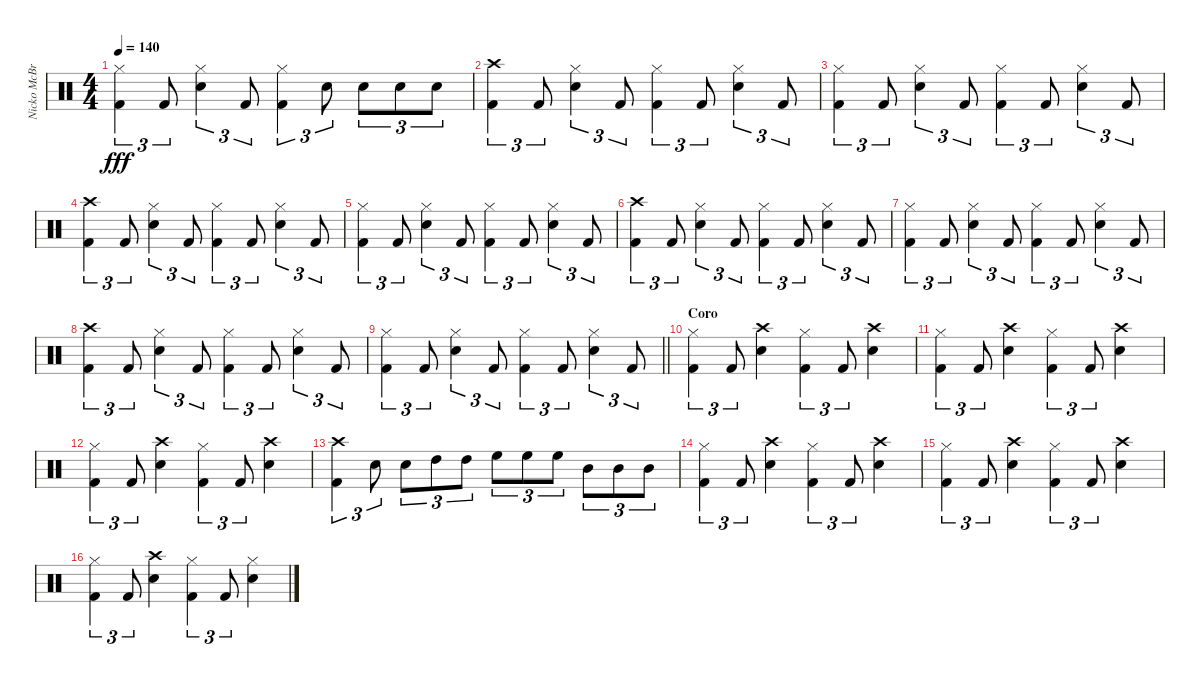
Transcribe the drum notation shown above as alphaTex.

\track ("Nicko McBrain" "Nicko McBr") {instrument percussion}
\staff {score}
\articulation defaults
\ts (4 4)
\tempo 140
\clef neutral
\ks c
("Kick (hit) 2" "Hi-Hat (closed)").4{tu (3 2) dy fff} "Kick (hit) 2".8{tu (3 2)} ("Hi-Hat (closed)" "Snare (hit) 2").4{tu (3 2)} "Kick (hit) 2".8{tu (3 2)} ("Kick (hit) 2" "Hi-Hat (closed)").4{tu (3 2)} "Snare (hit) 2".8{tu (3 2)} "Snare (hit) 2".8{tu (3 2)} "Snare (hit) 2".8{tu (3 2)} "Snare (hit) 2".8{tu (3 2)} |
("Crash high (hit)" "Kick (hit) 2").4{tu (3 2)} "Kick (hit) 2".8{tu (3 2)} ("Hi-Hat (closed)" "Snare (hit) 2").4{tu (3 2)} "Kick (hit) 2".8{tu (3 2)} ("Kick (hit) 2" "Hi-Hat (closed)").4{tu (3 2)} "Kick (hit) 2".8{tu (3 2)} ("Hi-Hat (closed)" "Snare (hit) 2").4{tu (3 2)} "Kick (hit) 2".8{tu (3 2)} |
("Kick (hit) 2" "Hi-Hat (closed)").4{tu (3 2)} "Kick (hit) 2".8{tu (3 2)} ("Hi-Hat (closed)" "Snare (hit) 2").4{tu (3 2)} "Kick (hit) 2".8{tu (3 2)} ("Kick (hit) 2" "Hi-Hat (closed)").4{tu (3 2)} "Kick (hit) 2".8{tu (3 2)} ("Hi-Hat (closed)" "Snare (hit) 2").4{tu (3 2)} "Kick (hit) 2".8{tu (3 2)} |
("Crash high (hit)" "Kick (hit) 2").4{tu (3 2)} "Kick (hit) 2".8{tu (3 2)} ("Hi-Hat (closed)" "Snare (hit) 2").4{tu (3 2)} "Kick (hit) 2".8{tu (3 2)} ("Kick (hit) 2" "Hi-Hat (closed)").4{tu (3 2)} "Kick (hit) 2".8{tu (3 2)} ("Hi-Hat (closed)" "Snare (hit) 2").4{tu (3 2)} "Kick (hit) 2".8{tu (3 2)} |
("Kick (hit) 2" "Hi-Hat (closed)").4{tu (3 2)} "Kick (hit) 2".8{tu (3 2)} ("Hi-Hat (closed)" "Snare (hit) 2").4{tu (3 2)} "Kick (hit) 2".8{tu (3 2)} ("Kick (hit) 2" "Hi-Hat (closed)").4{tu (3 2)} "Kick (hit) 2".8{tu (3 2)} ("Hi-Hat (closed)" "Snare (hit) 2").4{tu (3 2)} "Kick (hit) 2".8{tu (3 2)} |
("Crash high (hit)" "Kick (hit) 2").4{tu (3 2)} "Kick (hit) 2".8{tu (3 2)} ("Hi-Hat (closed)" "Snare (hit) 2").4{tu (3 2)} "Kick (hit) 2".8{tu (3 2)} ("Kick (hit) 2" "Hi-Hat (closed)").4{tu (3 2)} "Kick (hit) 2".8{tu (3 2)} ("Hi-Hat (closed)" "Snare (hit) 2").4{tu (3 2)} "Kick (hit) 2".8{tu (3 2)} |
("Kick (hit) 2" "Hi-Hat (closed)").4{tu (3 2)} "Kick (hit) 2".8{tu (3 2)} ("Hi-Hat (closed)" "Snare (hit) 2").4{tu (3 2)} "Kick (hit) 2".8{tu (3 2)} ("Kick (hit) 2" "Hi-Hat (closed)").4{tu (3 2)} "Kick (hit) 2".8{tu (3 2)} ("Hi-Hat (closed)" "Snare (hit) 2").4{tu (3 2)} "Kick (hit) 2".8{tu (3 2)} |
("Crash high (hit)" "Kick (hit) 2").4{tu (3 2)} "Kick (hit) 2".8{tu (3 2)} ("Hi-Hat (closed)" "Snare (hit) 2").4{tu (3 2)} "Kick (hit) 2".8{tu (3 2)} ("Kick (hit) 2" "Hi-Hat (closed)").4{tu (3 2)} "Kick (hit) 2".8{tu (3 2)} ("Hi-Hat (closed)" "Snare (hit) 2").4{tu (3 2)} "Kick (hit) 2".8{tu (3 2)} |
\barLineRight lightlight
("Kick (hit) 2" "Hi-Hat (closed)").4{tu (3 2)} "Kick (hit) 2".8{tu (3 2)} ("Hi-Hat (closed)" "Snare (hit) 2").4{tu (3 2)} "Kick (hit) 2".8{tu (3 2)} ("Kick (hit) 2" "Hi-Hat (closed)").4{tu (3 2)} "Kick (hit) 2".8{tu (3 2)} ("Hi-Hat (closed)" "Snare (hit) 2").4{tu (3 2)} "Kick (hit) 2".8{tu (3 2)} |
\section ("" "Coro")
("Hi-Hat (closed)" "Kick (hit) 2").4{tu (3 2)} "Kick (hit) 2".8{tu (3 2)} ("Crash high (hit)" "Snare (hit) 2").4 ("Hi-Hat (closed)" "Kick (hit) 2").4{tu (3 2)} "Kick (hit) 2".8{tu (3 2)} ("Crash high (hit)" "Snare (hit) 2").4 |
("Hi-Hat (closed)" "Kick (hit) 2").4{tu (3 2)} "Kick (hit) 2".8{tu (3 2)} ("Crash high (hit)" "Snare (hit) 2").4 ("Hi-Hat (closed)" "Kick (hit) 2").4{tu (3 2)} "Kick (hit) 2".8{tu (3 2)} ("Crash high (hit)" "Snare (hit) 2").4 |
("Hi-Hat (closed)" "Kick (hit) 2").4{tu (3 2)} "Kick (hit) 2".8{tu (3 2)} ("Crash high (hit)" "Snare (hit) 2").4 ("Hi-Hat (closed)" "Kick (hit) 2").4{tu (3 2)} "Kick (hit) 2".8{tu (3 2)} ("Crash high (hit)" "Snare (hit) 2").4 |
("Crash high (hit)" "Kick (hit) 2").4{tu (3 2)} "Snare (hit) 2".8{tu (3 2)} "Snare (hit) 2".8{tu (3 2)} "High Tom (hit)".8{tu (3 2)} "High Tom (hit)".8{tu (3 2)} "High Floor Tom (hit)".8{tu (3 2)} "High Floor Tom (hit)".8{tu (3 2)} "High Floor Tom (hit)".8{tu (3 2)} "Mid Tom (hit)".8{tu (3 2)} "Mid Tom (hit)".8{tu (3 2)} "Mid Tom (hit)".8{tu (3 2)} |
("Hi-Hat (closed)" "Kick (hit) 2").4{tu (3 2)} "Kick (hit) 2".8{tu (3 2)} ("Crash high (hit)" "Snare (hit) 2").4 ("Hi-Hat (closed)" "Kick (hit) 2").4{tu (3 2)} "Kick (hit) 2".8{tu (3 2)} ("Crash high (hit)" "Snare (hit) 2").4 |
("Hi-Hat (closed)" "Kick (hit) 2").4{tu (3 2)} "Kick (hit) 2".8{tu (3 2)} ("Crash high (hit)" "Snare (hit) 2").4 ("Hi-Hat (closed)" "Kick (hit) 2").4{tu (3 2)} "Kick (hit) 2".8{tu (3 2)} ("Crash high (hit)" "Snare (hit) 2").4 |
("Hi-Hat (closed)" "Kick (hit) 2").4{tu (3 2)} "Kick (hit) 2".8{tu (3 2)} ("Crash high (hit)" "Snare (hit) 2").4 ("Hi-Hat (closed)" "Kick (hit) 2").4{tu (3 2)} "Kick (hit) 2".8{tu (3 2)} ("Hi-Hat (closed)" "Snare (hit) 2").4
